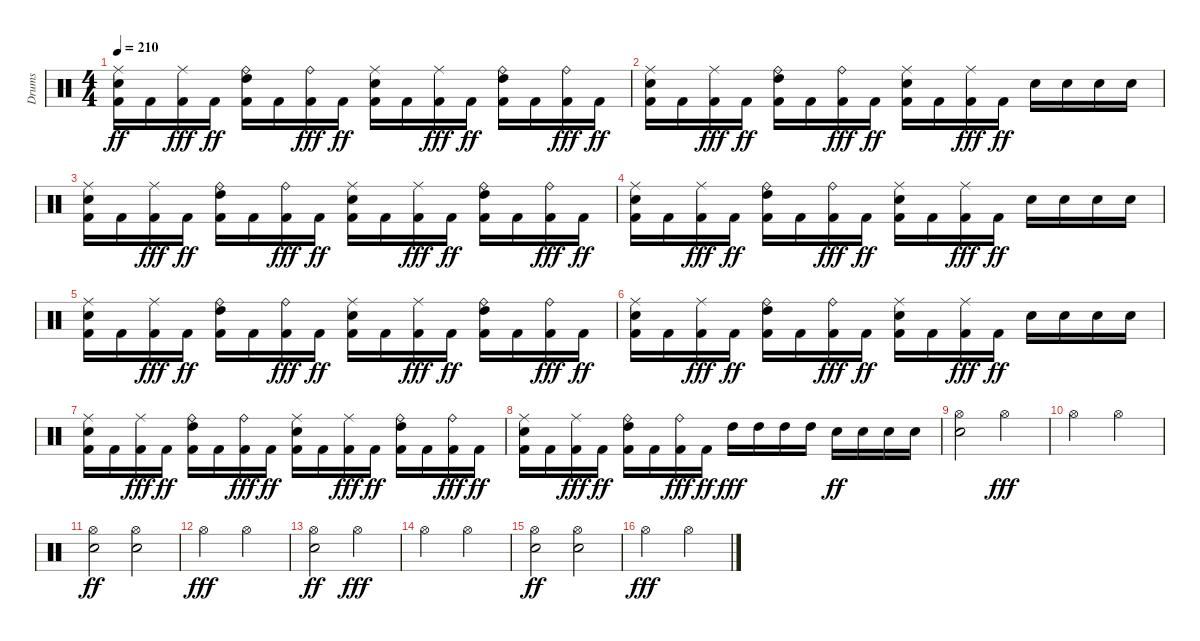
\track ("Drums" "Drums") {instrument percussion}
\staff {score}
\articulation defaults
\ts (4 4)
\tempo 210
\clef neutral
\ks c
("Kick (hit) 2" "Ride (middle)" "Electric Snare (hit)").16{dy ff} "Kick (hit) 2".16 ("Kick (hit) 2" "Ride (middle)").16{dy fff} "Kick (hit) 2".16{dy ff} ("Kick (hit) 2" "Ride (bell)" "High Tom (hit)").16 "Kick (hit) 2".16 ("Kick (hit) 2" "Ride (bell)").16{dy fff} "Kick (hit) 2".16{dy ff} ("Kick (hit) 2" "Ride (middle)" "Electric Snare (hit)").16 "Kick (hit) 2".16 ("Kick (hit) 2" "Ride (middle)").16{dy fff} "Kick (hit) 2".16{dy ff} ("Kick (hit) 2" "Ride (bell)" "High Tom (hit)").16 "Kick (hit) 2".16 ("Kick (hit) 2" "Ride (bell)").16{dy fff} "Kick (hit) 2".16{dy ff} |
("Kick (hit) 2" "Ride (middle)" "Electric Snare (hit)").16 "Kick (hit) 2".16 ("Kick (hit) 2" "Ride (middle)").16{dy fff} "Kick (hit) 2".16{dy ff} ("Kick (hit) 2" "Ride (bell)" "High Tom (hit)").16 "Kick (hit) 2".16 ("Kick (hit) 2" "Ride (bell)").16{dy fff} "Kick (hit) 2".16{dy ff} ("Kick (hit) 2" "Ride (middle)" "Electric Snare (hit)").16 "Kick (hit) 2".16 ("Kick (hit) 2" "Ride (middle)").16{dy fff} "Kick (hit) 2".16{dy ff} "Electric Snare (hit)".16 "Electric Snare (hit)".16 "Electric Snare (hit)".16 "Electric Snare (hit)".16 |
("Kick (hit) 2" "Ride (middle)" "Electric Snare (hit)").16 "Kick (hit) 2".16 ("Kick (hit) 2" "Ride (middle)").16{dy fff} "Kick (hit) 2".16{dy ff} ("Kick (hit) 2" "Ride (bell)" "High Tom (hit)").16 "Kick (hit) 2".16 ("Kick (hit) 2" "Ride (bell)").16{dy fff} "Kick (hit) 2".16{dy ff} ("Kick (hit) 2" "Ride (middle)" "Electric Snare (hit)").16 "Kick (hit) 2".16 ("Kick (hit) 2" "Ride (middle)").16{dy fff} "Kick (hit) 2".16{dy ff} ("Kick (hit) 2" "Ride (bell)" "High Tom (hit)").16 "Kick (hit) 2".16 ("Kick (hit) 2" "Ride (bell)").16{dy fff} "Kick (hit) 2".16{dy ff} |
("Kick (hit) 2" "Ride (middle)" "Electric Snare (hit)").16 "Kick (hit) 2".16 ("Kick (hit) 2" "Ride (middle)").16{dy fff} "Kick (hit) 2".16{dy ff} ("Kick (hit) 2" "Ride (bell)" "High Tom (hit)").16 "Kick (hit) 2".16 ("Kick (hit) 2" "Ride (bell)").16{dy fff} "Kick (hit) 2".16{dy ff} ("Kick (hit) 2" "Ride (middle)" "Electric Snare (hit)").16 "Kick (hit) 2".16 ("Kick (hit) 2" "Ride (middle)").16{dy fff} "Kick (hit) 2".16{dy ff} "Electric Snare (hit)".16 "Electric Snare (hit)".16 "Electric Snare (hit)".16 "Electric Snare (hit)".16 |
("Kick (hit) 2" "Ride (middle)" "Electric Snare (hit)").16 "Kick (hit) 2".16 ("Kick (hit) 2" "Ride (middle)").16{dy fff} "Kick (hit) 2".16{dy ff} ("Kick (hit) 2" "Ride (bell)" "High Tom (hit)").16 "Kick (hit) 2".16 ("Kick (hit) 2" "Ride (bell)").16{dy fff} "Kick (hit) 2".16{dy ff} ("Kick (hit) 2" "Ride (middle)" "Electric Snare (hit)").16 "Kick (hit) 2".16 ("Kick (hit) 2" "Ride (middle)").16{dy fff} "Kick (hit) 2".16{dy ff} ("Kick (hit) 2" "Ride (bell)" "High Tom (hit)").16 "Kick (hit) 2".16 ("Kick (hit) 2" "Ride (bell)").16{dy fff} "Kick (hit) 2".16{dy ff} |
("Kick (hit) 2" "Ride (middle)" "Electric Snare (hit)").16 "Kick (hit) 2".16 ("Kick (hit) 2" "Ride (middle)").16{dy fff} "Kick (hit) 2".16{dy ff} ("Kick (hit) 2" "Ride (bell)" "High Tom (hit)").16 "Kick (hit) 2".16 ("Kick (hit) 2" "Ride (bell)").16{dy fff} "Kick (hit) 2".16{dy ff} ("Kick (hit) 2" "Ride (middle)" "Electric Snare (hit)").16 "Kick (hit) 2".16 ("Kick (hit) 2" "Ride (middle)").16{dy fff} "Kick (hit) 2".16{dy ff} "Electric Snare (hit)".16 "Electric Snare (hit)".16 "Electric Snare (hit)".16 "Electric Snare (hit)".16 |
("Kick (hit) 2" "Ride (middle)" "Electric Snare (hit)").16 "Kick (hit) 2".16 ("Kick (hit) 2" "Ride (middle)").16{dy fff} "Kick (hit) 2".16{dy ff} ("Kick (hit) 2" "Ride (bell)" "High Tom (hit)").16 "Kick (hit) 2".16 ("Kick (hit) 2" "Ride (bell)").16{dy fff} "Kick (hit) 2".16{dy ff} ("Kick (hit) 2" "Ride (middle)" "Electric Snare (hit)").16 "Kick (hit) 2".16 ("Kick (hit) 2" "Ride (middle)").16{dy fff} "Kick (hit) 2".16{dy ff} ("Kick (hit) 2" "Ride (bell)" "High Tom (hit)").16 "Kick (hit) 2".16 ("Kick (hit) 2" "Ride (bell)").16{dy fff} "Kick (hit) 2".16{dy ff} |
("Kick (hit) 2" "Ride (middle)" "Electric Snare (hit)").16 "Kick (hit) 2".16 ("Kick (hit) 2" "Ride (middle)").16{dy fff} "Kick (hit) 2".16{dy ff} ("Kick (hit) 2" "Ride (bell)" "High Tom (hit)").16 "Kick (hit) 2".16 ("Kick (hit) 2" "Ride (bell)").16{dy fff} "Kick (hit) 2".16{dy ff} "High Tom (hit)".16{dy fff} "High Tom (hit)".16 "High Tom (hit)".16 "High Tom (hit)".16 "Electric Snare (hit)".16{dy ff} "Electric Snare (hit)".16 "Electric Snare (hit)".16 "Electric Snare (hit)".16 |
("Hi-Hat (open)" "Electric Snare (hit)").2 "Hi-Hat (open)".2{dy fff} |
"Hi-Hat (open)".2 "Hi-Hat (open)".2 |
("Hi-Hat (open)" "Electric Snare (hit)").2{dy ff} ("Hi-Hat (open)" "Electric Snare (hit)").2 |
"Hi-Hat (open)".2{dy fff} "Hi-Hat (open)".2 |
("Hi-Hat (open)" "Electric Snare (hit)").2{dy ff} "Hi-Hat (open)".2{dy fff} |
"Hi-Hat (open)".2 "Hi-Hat (open)".2 |
("Hi-Hat (open)" "Electric Snare (hit)").2{dy ff} ("Hi-Hat (open)" "Electric Snare (hit)").2 |
"Hi-Hat (open)".2{dy fff} "Hi-Hat (open)".2
